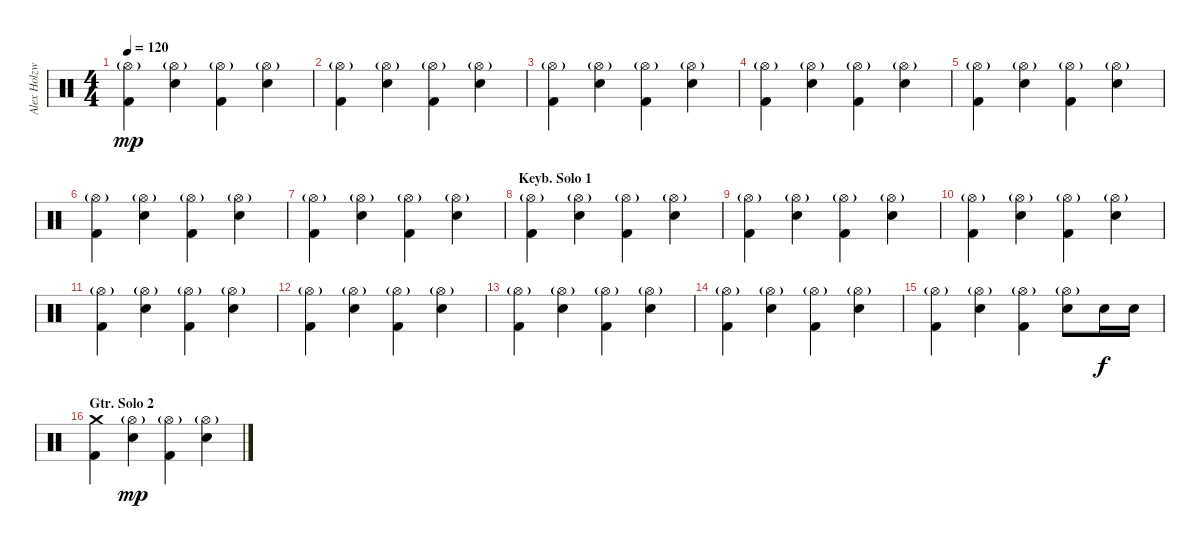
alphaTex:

\track ("Alex Holzwarth - Drums" "Alex Holzw") {instrument percussion}
\staff {score}
\articulation defaults
\ts (4 4)
\tempo 120
\clef neutral
\ks c
("Hi-Hat (open)"{g} "Kick (hit) 2").4{dy mp} ("Hi-Hat (open)"{g} "Electric Snare (hit)").4 ("Hi-Hat (open)"{g} "Kick (hit) 2").4 ("Hi-Hat (open)"{g} "Electric Snare (hit)").4 |
("Hi-Hat (open)"{g} "Kick (hit) 2").4 ("Hi-Hat (open)"{g} "Electric Snare (hit)").4 ("Hi-Hat (open)"{g} "Kick (hit) 2").4 ("Hi-Hat (open)"{g} "Electric Snare (hit)").4 |
("Hi-Hat (open)"{g} "Kick (hit) 2").4 ("Hi-Hat (open)"{g} "Electric Snare (hit)").4 ("Hi-Hat (open)"{g} "Kick (hit) 2").4 ("Hi-Hat (open)"{g} "Electric Snare (hit)").4 |
("Hi-Hat (open)"{g} "Kick (hit) 2").4 ("Hi-Hat (open)"{g} "Electric Snare (hit)").4 ("Hi-Hat (open)"{g} "Kick (hit) 2").4 ("Hi-Hat (open)"{g} "Electric Snare (hit)").4 |
("Hi-Hat (open)"{g} "Kick (hit) 2").4 ("Hi-Hat (open)"{g} "Electric Snare (hit)").4 ("Hi-Hat (open)"{g} "Kick (hit) 2").4 ("Hi-Hat (open)"{g} "Electric Snare (hit)").4 |
("Hi-Hat (open)"{g} "Kick (hit) 2").4 ("Hi-Hat (open)"{g} "Electric Snare (hit)").4 ("Hi-Hat (open)"{g} "Kick (hit) 2").4 ("Hi-Hat (open)"{g} "Electric Snare (hit)").4 |
("Hi-Hat (open)"{g} "Kick (hit) 2").4 ("Hi-Hat (open)"{g} "Electric Snare (hit)").4 ("Hi-Hat (open)"{g} "Kick (hit) 2").4 ("Hi-Hat (open)"{g} "Electric Snare (hit)").4 |
\section ("" "Keyb. Solo 1")
("Hi-Hat (open)"{g} "Kick (hit) 2").4 ("Hi-Hat (open)"{g} "Electric Snare (hit)").4 ("Hi-Hat (open)"{g} "Kick (hit) 2").4 ("Hi-Hat (open)"{g} "Electric Snare (hit)").4 |
("Hi-Hat (open)"{g} "Kick (hit) 2").4 ("Hi-Hat (open)"{g} "Electric Snare (hit)").4 ("Hi-Hat (open)"{g} "Kick (hit) 2").4 ("Hi-Hat (open)"{g} "Electric Snare (hit)").4 |
("Hi-Hat (open)"{g} "Kick (hit) 2").4 ("Hi-Hat (open)"{g} "Electric Snare (hit)").4 ("Hi-Hat (open)"{g} "Kick (hit) 2").4 ("Hi-Hat (open)"{g} "Electric Snare (hit)").4 |
("Hi-Hat (open)"{g} "Kick (hit) 2").4 ("Hi-Hat (open)"{g} "Electric Snare (hit)").4 ("Hi-Hat (open)"{g} "Kick (hit) 2").4 ("Hi-Hat (open)"{g} "Electric Snare (hit)").4 |
("Hi-Hat (open)"{g} "Kick (hit) 2").4 ("Hi-Hat (open)"{g} "Electric Snare (hit)").4 ("Hi-Hat (open)"{g} "Kick (hit) 2").4 ("Hi-Hat (open)"{g} "Electric Snare (hit)").4 |
("Hi-Hat (open)"{g} "Kick (hit) 2").4 ("Hi-Hat (open)"{g} "Electric Snare (hit)").4 ("Hi-Hat (open)"{g} "Kick (hit) 2").4 ("Hi-Hat (open)"{g} "Electric Snare (hit)").4 |
("Hi-Hat (open)"{g} "Kick (hit) 2").4 ("Hi-Hat (open)"{g} "Electric Snare (hit)").4 ("Hi-Hat (open)"{g} "Kick (hit) 2").4 ("Hi-Hat (open)"{g} "Electric Snare (hit)").4 |
("Hi-Hat (open)"{g} "Kick (hit) 2").4 ("Hi-Hat (open)"{g} "Electric Snare (hit)").4 ("Hi-Hat (open)"{g} "Kick (hit) 2").4 ("Hi-Hat (open)"{g} "Electric Snare (hit)").8 "Electric Snare (hit)".16{dy f} "Electric Snare (hit)".16 |
\section ("" "Gtr. Solo 2")
("Crash medium (hit)" "Kick (hit) 2").4 ("Hi-Hat (open)"{g} "Electric Snare (hit)").4{dy mp} ("Hi-Hat (open)"{g} "Kick (hit) 2").4 ("Hi-Hat (open)"{g} "Electric Snare (hit)").4
